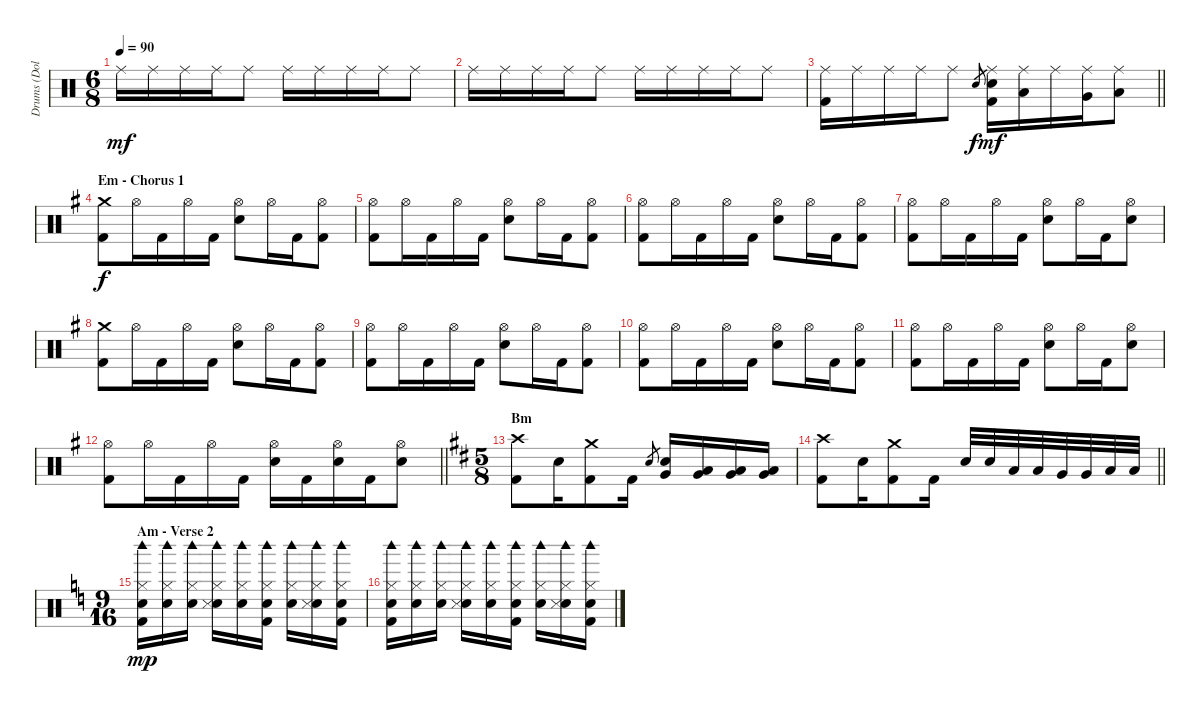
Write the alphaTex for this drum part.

\track ("Drums (Dolmayan)" "Drums (Dol") {instrument percussion}
\staff {score}
\articulation defaults
\ts (6 8)
\tempo 90
\clef neutral
\ks aminor "Ride (middle)".16{dy mf} "Ride (middle)".16 "Ride (middle)".16 "Ride (middle)".16 "Ride (middle)".8 "Ride (middle)".16 "Ride (middle)".16 "Ride (middle)".16 "Ride (middle)".16 "Ride (middle)".8
|
"Ride (middle)".16 "Ride (middle)".16 "Ride (middle)".16 "Ride (middle)".16 "Ride (middle)".8 "Ride (middle)".16 "Ride (middle)".16 "Ride (middle)".16 "Ride (middle)".16 "Ride (middle)".8 |
\barLineRight lightlight
("Ride (middle)" "Kick (hit) 2").16 "Ride (middle)".16 "Ride (middle)".16 "Ride (middle)".16 "Ride (middle)".8 "Electric Snare (hit)".8{gr dy f} ("Ride (middle)" "Electric Snare (hit)" "Kick (hit) 2").16{dy mf} ("Ride (middle)" "Low Tom (hit)").16 "Ride (middle)".16 ("Ride (middle)" "Very Low Tom (hit)").16 ("Ride (middle)" "Low Floor Tom (hit)").8 |
\section ("" "Em - Chorus 1")
\ks eminor
("Crash medium (hit)" "Kick (hit) 2").8{dy f} "Hi-Hat (open)".16 "Kick (hit) 2".16 "Hi-Hat (open)".16 "Kick (hit) 2".16 ("Hi-Hat (open)" "Electric Snare (hit)").8 "Hi-Hat (open)".16 "Kick (hit) 2".16 ("Hi-Hat (open)" "Kick (hit) 2").8 |
("Hi-Hat (open)" "Kick (hit) 2").8 "Hi-Hat (open)".16 "Kick (hit) 2".16 "Hi-Hat (open)".16 "Kick (hit) 2".16 ("Hi-Hat (open)" "Electric Snare (hit)").8 "Hi-Hat (open)".16 "Kick (hit) 2".16 ("Hi-Hat (open)" "Kick (hit) 2").8 |
("Hi-Hat (open)" "Kick (hit) 2").8 "Hi-Hat (open)".16 "Kick (hit) 2".16 "Hi-Hat (open)".16 "Kick (hit) 2".16 ("Hi-Hat (open)" "Electric Snare (hit)").8 "Hi-Hat (open)".16 "Kick (hit) 2".16 ("Hi-Hat (open)" "Kick (hit) 2").8 |
("Hi-Hat (open)" "Kick (hit) 2").8 "Hi-Hat (open)".16 "Kick (hit) 2".16 "Hi-Hat (open)".16 "Kick (hit) 2".16 ("Hi-Hat (open)" "Electric Snare (hit)").8 "Hi-Hat (open)".16 "Kick (hit) 2".16 ("Hi-Hat (open)" "Electric Snare (hit)").8 |
("Crash medium (hit)" "Kick (hit) 2").8 "Hi-Hat (open)".16 "Kick (hit) 2".16 "Hi-Hat (open)".16 "Kick (hit) 2".16 ("Hi-Hat (open)" "Electric Snare (hit)").8 "Hi-Hat (open)".16 "Kick (hit) 2".16 ("Hi-Hat (open)" "Kick (hit) 2").8 |
("Hi-Hat (open)" "Kick (hit) 2").8 "Hi-Hat (open)".16 "Kick (hit) 2".16 "Hi-Hat (open)".16 "Kick (hit) 2".16 ("Hi-Hat (open)" "Electric Snare (hit)").8 "Hi-Hat (open)".16 "Kick (hit) 2".16 ("Hi-Hat (open)" "Kick (hit) 2").8 |
("Hi-Hat (open)" "Kick (hit) 2").8 "Hi-Hat (open)".16 "Kick (hit) 2".16 "Hi-Hat (open)".16 "Kick (hit) 2".16 ("Hi-Hat (open)" "Electric Snare (hit)").8 "Hi-Hat (open)".16 "Kick (hit) 2".16 ("Hi-Hat (open)" "Kick (hit) 2").8 |
("Hi-Hat (open)" "Kick (hit) 2").8 "Hi-Hat (open)".16 "Kick (hit) 2".16 "Hi-Hat (open)".16 "Kick (hit) 2".16 ("Hi-Hat (open)" "Electric Snare (hit)").8 "Hi-Hat (open)".16 "Kick (hit) 2".16 ("Hi-Hat (open)" "Electric Snare (hit)").8 |
\barLineRight lightlight
("Hi-Hat (open)" "Kick (hit) 2").8 "Hi-Hat (open)".16 "Kick (hit) 2".16 "Hi-Hat (open)".16 "Kick (hit) 2".16 ("Hi-Hat (open)" "Electric Snare (hit)").16 "Kick (hit) 2".16 ("Hi-Hat (open)" "Electric Snare (hit)").16 "Kick (hit) 2".16 ("Hi-Hat (open)" "Electric Snare (hit)").8 |
\ts (5 8)
\section ("" "Bm")
\ks bminor
("Crash high (hit)" "Kick (hit) 2").8 "Electric Snare (hit)".16 ("Crash medium (hit)" "Kick (hit) 2").8 "Kick (hit) 2".16 "Electric Snare (hit)".8{gr} ("Very Low Tom (hit)" "Electric Snare (hit)").16 ("Low Tom (hit)" "Very Low Tom (hit)").16 ("Very Low Tom (hit)" "Low Floor Tom (hit)").16 ("Very Low Tom (hit)" "Low Floor Tom (hit)").16 |
\barLineRight lightlight
("Crash high (hit)" "Kick (hit) 2").8 "Electric Snare (hit)".16 ("Crash medium (hit)" "Kick (hit) 2").8 "Kick (hit) 2".16 "Electric Snare (hit)".32 "Electric Snare (hit)".32 "Low Tom (hit)".32 "Low Tom (hit)".32 "Very Low Tom (hit)".32 "Very Low Tom (hit)".32 "Low Floor Tom (hit)".32 "Low Floor Tom (hit)".32 |
\ts (9 16)
\section ("" "Am - Verse 2")
\ks aminor
("Woodblock high (hit)" "Hand Clap (hit)" "Hi-Hat (closed)" "Kick (hit) 2").16{dy mp} ("Woodblock high (hit)" "Hand Clap (hit)" "Hi-Hat (closed)").16 ("Woodblock high (hit)" "Hand Clap (hit)" "Hi-Hat (closed)").16 ("Woodblock high (hit)" "Hand Clap (hit)" "Hi-Hat (closed)" "Snare (side stick) 3").16 ("Woodblock high (hit)" "Hand Clap (hit)" "Hi-Hat (closed)").16 ("Woodblock high (hit)" "Hand Clap (hit)" "Hi-Hat (closed)" "Kick (hit) 2").16 ("Woodblock high (hit)" "Hand Clap (hit)" "Hi-Hat (closed)").16 ("Woodblock high (hit)" "Hand Clap (hit)" "Hi-Hat (closed)" "Snare (side stick) 3").16 ("Woodblock high (hit)" "Hand Clap (hit)" "Hi-Hat (closed)" "Kick (hit) 2").16 |
("Woodblock high (hit)" "Hand Clap (hit)" "Hi-Hat (closed)" "Kick (hit) 2").16 ("Woodblock high (hit)" "Hand Clap (hit)" "Hi-Hat (closed)").16 ("Woodblock high (hit)" "Hand Clap (hit)" "Hi-Hat (closed)").16 ("Woodblock high (hit)" "Hand Clap (hit)" "Hi-Hat (closed)" "Snare (side stick) 3").16 ("Woodblock high (hit)" "Hand Clap (hit)" "Hi-Hat (closed)").16 ("Woodblock high (hit)" "Hand Clap (hit)" "Hi-Hat (closed)" "Kick (hit) 2").16 ("Woodblock high (hit)" "Hand Clap (hit)" "Hi-Hat (closed)").16 ("Woodblock high (hit)" "Hand Clap (hit)" "Hi-Hat (closed)" "Snare (side stick) 3").16 ("Woodblock high (hit)" "Hand Clap (hit)" "Hi-Hat (closed)" "Kick (hit) 2").16
